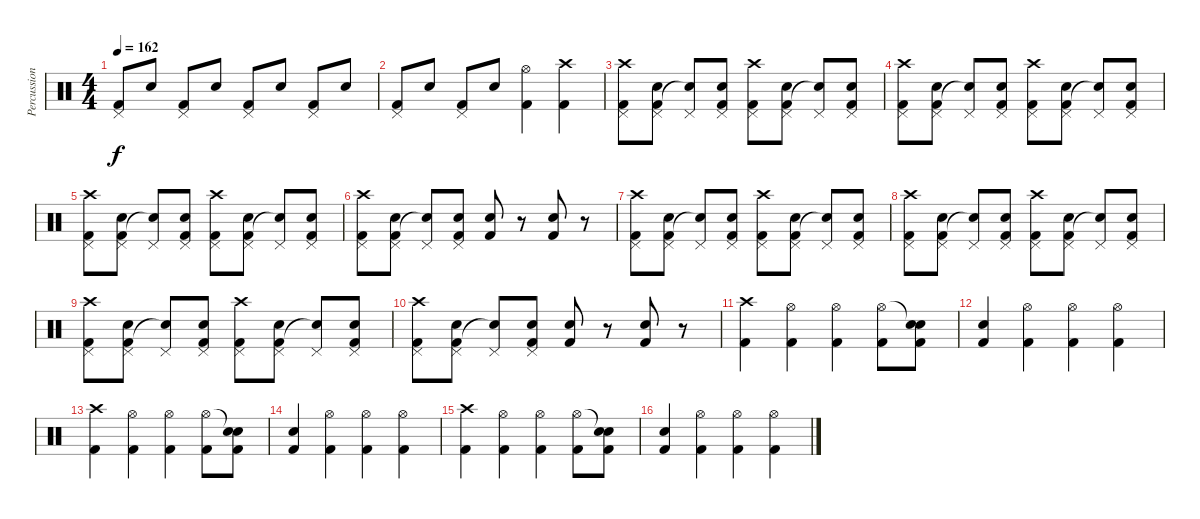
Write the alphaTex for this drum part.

\track ("Percussions" "Percussion") {instrument percussion}
\staff {score}
\articulation defaults
\ts (4 4)
\tempo 162
\clef neutral
\ks c
("Kick (hit) 2" "Pedal Hi-Hat (hit)").8{dy f} "Electric Snare (hit)".8 ("Kick (hit) 2" "Pedal Hi-Hat (hit)").8 "Electric Snare (hit)".8 ("Kick (hit) 2" "Pedal Hi-Hat (hit)").8 "Electric Snare (hit)".8 ("Kick (hit) 2" "Pedal Hi-Hat (hit)").8 "Electric Snare (hit)".8 |
("Kick (hit) 2" "Pedal Hi-Hat (hit)").8 "Electric Snare (hit)".8 ("Kick (hit) 2" "Pedal Hi-Hat (hit)").8 "Electric Snare (hit)".8 ("Kick (hit) 2" "Hi-Hat (open)").4 ("Kick (hit) 2" "Crash high (hit)").4 |
("Kick (hit) 2" "Crash high (hit)" "Pedal Hi-Hat (hit)").8 ("Kick (hit) 2" "Electric Snare (hit)" "Pedal Hi-Hat (hit)").8 ("Snare (hit)"{t} "Pedal Hi-Hat (hit)").8 ("Kick (hit) 2" "Electric Snare (hit)" "Pedal Hi-Hat (hit)").8 ("Kick (hit) 2" "Crash high (hit)" "Pedal Hi-Hat (hit)").8 ("Kick (hit) 2" "Electric Snare (hit)" "Pedal Hi-Hat (hit)").8 ("Snare (hit)"{t} "Pedal Hi-Hat (hit)").8 ("Kick (hit) 2" "Electric Snare (hit)" "Pedal Hi-Hat (hit)").8 |
("Kick (hit) 2" "Crash high (hit)" "Pedal Hi-Hat (hit)").8 ("Kick (hit) 2" "Electric Snare (hit)" "Pedal Hi-Hat (hit)").8 ("Snare (hit)"{t} "Pedal Hi-Hat (hit)").8 ("Kick (hit) 2" "Electric Snare (hit)" "Pedal Hi-Hat (hit)").8 ("Kick (hit) 2" "Crash high (hit)" "Pedal Hi-Hat (hit)").8 ("Kick (hit) 2" "Electric Snare (hit)" "Pedal Hi-Hat (hit)").8 ("Snare (hit)"{t} "Pedal Hi-Hat (hit)").8 ("Kick (hit) 2" "Electric Snare (hit)" "Pedal Hi-Hat (hit)").8 |
("Kick (hit) 2" "Crash high (hit)" "Pedal Hi-Hat (hit)").8 ("Kick (hit) 2" "Electric Snare (hit)" "Pedal Hi-Hat (hit)").8 ("Snare (hit)"{t} "Pedal Hi-Hat (hit)").8 ("Kick (hit) 2" "Electric Snare (hit)" "Pedal Hi-Hat (hit)").8 ("Kick (hit) 2" "Crash high (hit)" "Pedal Hi-Hat (hit)").8 ("Kick (hit) 2" "Electric Snare (hit)" "Pedal Hi-Hat (hit)").8 ("Snare (hit)"{t} "Pedal Hi-Hat (hit)").8 ("Kick (hit) 2" "Electric Snare (hit)" "Pedal Hi-Hat (hit)").8 |
("Kick (hit) 2" "Crash high (hit)" "Pedal Hi-Hat (hit)").8 ("Kick (hit) 2" "Electric Snare (hit)" "Pedal Hi-Hat (hit)").8 ("Snare (hit)"{t} "Pedal Hi-Hat (hit)").8 ("Kick (hit) 2" "Electric Snare (hit)" "Pedal Hi-Hat (hit)").8 ("Kick (hit) 2" "Electric Snare (hit)").8 r.8 ("Kick (hit) 2" "Electric Snare (hit)").8 r.8 |
("Kick (hit) 2" "Crash high (hit)" "Pedal Hi-Hat (hit)").8 ("Kick (hit) 2" "Electric Snare (hit)" "Pedal Hi-Hat (hit)").8 ("Snare (hit)"{t} "Pedal Hi-Hat (hit)").8 ("Kick (hit) 2" "Electric Snare (hit)" "Pedal Hi-Hat (hit)").8 ("Kick (hit) 2" "Crash high (hit)" "Pedal Hi-Hat (hit)").8 ("Kick (hit) 2" "Electric Snare (hit)" "Pedal Hi-Hat (hit)").8 ("Snare (hit)"{t} "Pedal Hi-Hat (hit)").8 ("Kick (hit) 2" "Electric Snare (hit)" "Pedal Hi-Hat (hit)").8 |
("Kick (hit) 2" "Crash high (hit)" "Pedal Hi-Hat (hit)").8 ("Kick (hit) 2" "Electric Snare (hit)" "Pedal Hi-Hat (hit)").8 ("Snare (hit)"{t} "Pedal Hi-Hat (hit)").8 ("Kick (hit) 2" "Electric Snare (hit)" "Pedal Hi-Hat (hit)").8 ("Kick (hit) 2" "Crash high (hit)" "Pedal Hi-Hat (hit)").8 ("Kick (hit) 2" "Electric Snare (hit)" "Pedal Hi-Hat (hit)").8 ("Snare (hit)"{t} "Pedal Hi-Hat (hit)").8 ("Kick (hit) 2" "Electric Snare (hit)" "Pedal Hi-Hat (hit)").8 |
("Kick (hit) 2" "Crash high (hit)" "Pedal Hi-Hat (hit)").8 ("Kick (hit) 2" "Electric Snare (hit)" "Pedal Hi-Hat (hit)").8 ("Snare (hit)"{t} "Pedal Hi-Hat (hit)").8 ("Kick (hit) 2" "Electric Snare (hit)" "Pedal Hi-Hat (hit)").8 ("Kick (hit) 2" "Crash high (hit)" "Pedal Hi-Hat (hit)").8 ("Kick (hit) 2" "Electric Snare (hit)" "Pedal Hi-Hat (hit)").8 ("Snare (hit)"{t} "Pedal Hi-Hat (hit)").8 ("Kick (hit) 2" "Electric Snare (hit)" "Pedal Hi-Hat (hit)").8 |
("Kick (hit) 2" "Crash high (hit)" "Pedal Hi-Hat (hit)").8 ("Kick (hit) 2" "Electric Snare (hit)" "Pedal Hi-Hat (hit)").8 ("Snare (hit)"{t} "Pedal Hi-Hat (hit)").8 ("Kick (hit) 2" "Electric Snare (hit)" "Pedal Hi-Hat (hit)").8 ("Kick (hit) 2" "Electric Snare (hit)").8 r.8 ("Kick (hit) 2" "Electric Snare (hit)").8 r.8 |
("Kick (hit) 2" "Crash high (hit)").4 ("Kick (hit) 2" "Hi-Hat (open)").4 ("Kick (hit) 2" "Hi-Hat (open)").4 ("Kick (hit) 2" "Hi-Hat (open)").8 ("Electric Snare (hit)" "Electric Snare (hit)"{t} "Kick (hit) 2").8 |
("Electric Snare (hit)" "Kick (hit) 2").4 ("Kick (hit) 2" "Hi-Hat (open)").4 ("Kick (hit) 2" "Hi-Hat (open)").4 ("Kick (hit) 2" "Hi-Hat (open)").4 |
("Kick (hit) 2" "Crash high (hit)").4 ("Kick (hit) 2" "Hi-Hat (open)").4 ("Kick (hit) 2" "Hi-Hat (open)").4 ("Kick (hit) 2" "Hi-Hat (open)").8 ("Electric Snare (hit)" "Electric Snare (hit)"{t} "Kick (hit) 2").8 |
("Electric Snare (hit)" "Kick (hit) 2").4 ("Kick (hit) 2" "Hi-Hat (open)").4 ("Kick (hit) 2" "Hi-Hat (open)").4 ("Kick (hit) 2" "Hi-Hat (open)").4 |
("Kick (hit) 2" "Crash high (hit)").4 ("Kick (hit) 2" "Hi-Hat (open)").4 ("Kick (hit) 2" "Hi-Hat (open)").4 ("Kick (hit) 2" "Hi-Hat (open)").8 ("Electric Snare (hit)" "Electric Snare (hit)"{t} "Kick (hit) 2").8 |
("Electric Snare (hit)" "Kick (hit) 2").4 ("Kick (hit) 2" "Hi-Hat (open)").4 ("Kick (hit) 2" "Hi-Hat (open)").4 ("Kick (hit) 2" "Hi-Hat (open)").4
